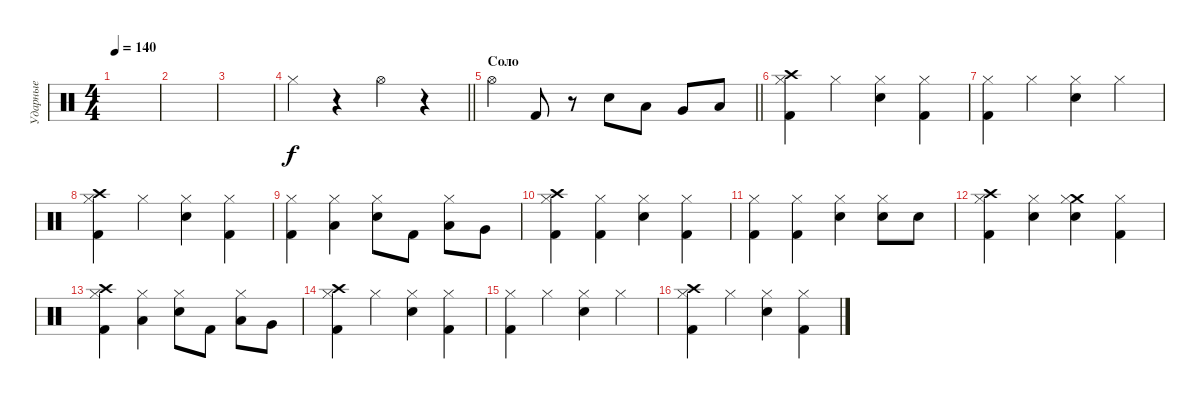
\track ("Ударные" "Ударные") {instrument percussion}
\staff {score}
\articulation defaults
\ts (4 4)
\tempo 140
\clef neutral
\ks c
|
|
|
\barLineRight lightlight "Hi-Hat (closed)".4
r.4 "Hi-Hat (open)".4 r.4 |
\section ("" "Соло")
\barLineRight lightlight "Hi-Hat (open)".4 "Kick (hit) 2".8
r.8 "Snare (hit) 2".8 "Low Tom (hit)".8 "Very Low Tom (hit)".8 "Low Floor Tom (hit)".8 |
("Hi-Hat (closed)" "Crash high (hit)" "Kick (hit) 2").4 "Hi-Hat (closed)".4 ("Hi-Hat (closed)" "Snare (hit) 2").4 ("Hi-Hat (closed)" "Kick (hit) 2").4 |
("Hi-Hat (closed)" "Kick (hit) 2").4 "Hi-Hat (closed)".4 ("Snare (hit) 2" "Hi-Hat (closed)").4 "Hi-Hat (closed)".4 |
("Hi-Hat (closed)" "Crash high (hit)" "Kick (hit) 2").4 "Hi-Hat (closed)".4 ("Hi-Hat (closed)" "Snare (hit) 2").4 ("Hi-Hat (closed)" "Kick (hit) 2").4 |
("Hi-Hat (closed)" "Kick (hit) 2").4 ("Low Floor Tom (hit)" "Hi-Hat (closed)").4 ("Snare (hit) 2" "Hi-Hat (closed)").8 "Kick (hit) 2".8 ("Low Tom (hit)" "Hi-Hat (closed)").8 "Very Low Tom (hit)".8 |
("Hi-Hat (closed)" "Crash high (hit)" "Kick (hit) 2").4 ("Hi-Hat (closed)" "Kick (hit) 2").4 ("Hi-Hat (closed)" "Snare (hit) 2").4 ("Hi-Hat (closed)" "Kick (hit) 2").4 |
("Hi-Hat (closed)" "Kick (hit) 2").4 ("Hi-Hat (closed)" "Kick (hit) 2").4 ("Snare (hit) 2" "Hi-Hat (closed)").4 ("Snare (hit) 2" "Hi-Hat (closed)").8 "Snare (hit) 2".8 |
("Hi-Hat (closed)" "Crash high (hit)" "Kick (hit) 2").4 ("Hi-Hat (closed)" "Snare (hit) 2").4 ("Crash medium (hit)" "Hi-Hat (closed)" "Snare (hit) 2").4 ("Hi-Hat (closed)" "Kick (hit) 2").4 |
("Crash high (hit)" "Hi-Hat (closed)" "Kick (hit) 2").4 ("Low Floor Tom (hit)" "Hi-Hat (closed)").4 ("Snare (hit) 2" "Hi-Hat (closed)").8 "Kick (hit) 2".8 ("Low Tom (hit)" "Hi-Hat (closed)").8 "Very Low Tom (hit)".8 |
("Hi-Hat (closed)" "Crash high (hit)" "Kick (hit) 2").4 "Hi-Hat (closed)".4 ("Hi-Hat (closed)" "Snare (hit) 2").4 ("Hi-Hat (closed)" "Kick (hit) 2").4 |
("Hi-Hat (closed)" "Kick (hit) 2").4 "Hi-Hat (closed)".4 ("Snare (hit) 2" "Hi-Hat (closed)").4 "Hi-Hat (closed)".4 |
("Hi-Hat (closed)" "Crash high (hit)" "Kick (hit) 2").4 "Hi-Hat (closed)".4 ("Hi-Hat (closed)" "Snare (hit) 2").4 ("Hi-Hat (closed)" "Kick (hit) 2").4
